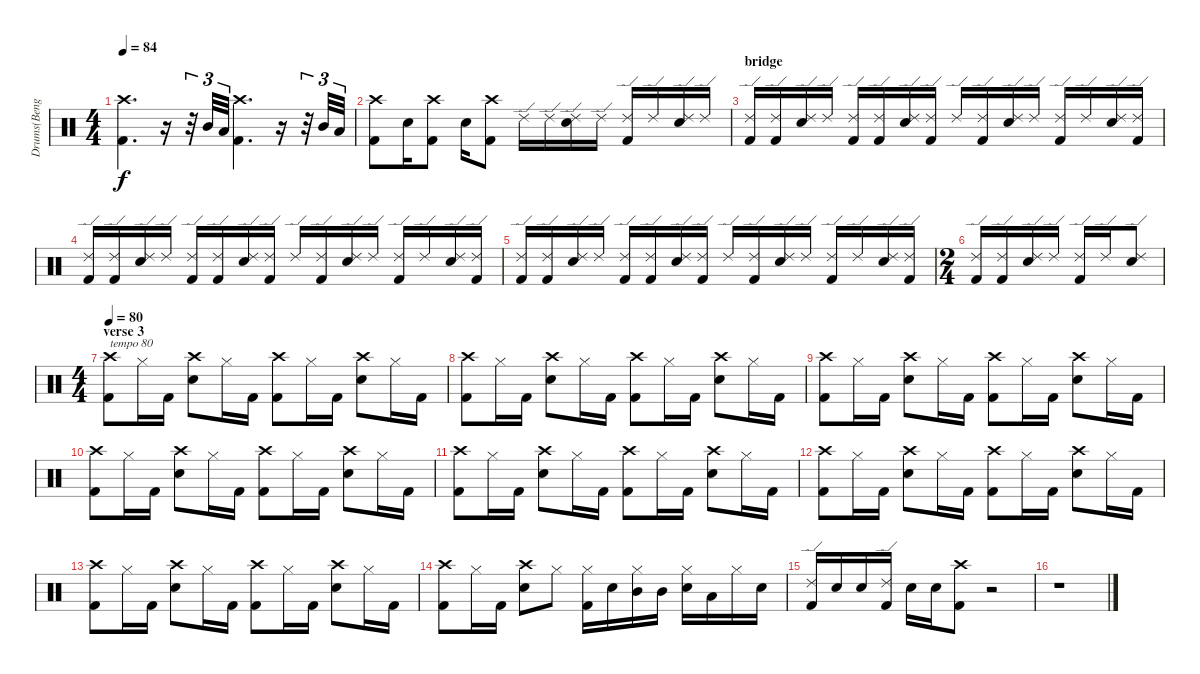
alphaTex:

\track ("Drums(Bengerg)" "Drums(Beng") {instrument percussion}
\staff {score}
\articulation defaults
\ts (4 4)
\tempo 84
\clef neutral
\ks c
("Crash high (hit)" "Kick (hit) 2").4{d dy f} r.16 r.32{tu (3 2)} "Mid Tom (hit)".32{tu (3 2)} "Low Tom (hit)".32{tu (3 2)} ("Crash high (hit)" "Kick (hit) 2").4{d} r.16 r.32{tu (3 2)} "Mid Tom (hit)".32{tu (3 2)} "Low Tom (hit)".32{tu (3 2)} |
("Crash high (hit)" "Kick (hit) 2").8 "Electric Snare (hit)".16 ("Crash high (hit)" "Kick (hit) 2").8 "Electric Snare (hit)".16 ("Crash high (hit)" "Kick (hit) 2").8 "Ride (edge) 2".16 "Ride (edge) 2".16 ("Ride (edge) 2" "Electric Snare (hit)").16 "Ride (edge) 2".16 ("Ride (edge) 2" "Kick (hit) 2").16 "Ride (edge) 2".16 ("Ride (edge) 2" "Electric Snare (hit)").16 "Ride (edge) 2".16 |
\section ("" "bridge")
("Ride (edge) 2" "Kick (hit) 2").16 ("Ride (edge) 2" "Kick (hit) 2").16 ("Ride (edge) 2" "Electric Snare (hit)").16 "Ride (edge) 2".16 ("Ride (edge) 2" "Kick (hit) 2").16 ("Ride (edge) 2" "Kick (hit) 2").16 ("Ride (edge) 2" "Electric Snare (hit)").16 ("Ride (edge) 2" "Kick (hit) 2").16 "Ride (edge) 2".16 ("Ride (edge) 2" "Kick (hit) 2").16 ("Ride (edge) 2" "Electric Snare (hit)").16 "Ride (edge) 2".16 ("Ride (edge) 2" "Kick (hit) 2").16 "Ride (edge) 2".16 ("Ride (edge) 2" "Electric Snare (hit)").16 ("Ride (edge) 2" "Kick (hit) 2").16 |
("Ride (edge) 2" "Kick (hit) 2").16 ("Ride (edge) 2" "Kick (hit) 2").16 ("Ride (edge) 2" "Electric Snare (hit)").16 "Ride (edge) 2".16 ("Ride (edge) 2" "Kick (hit) 2").16 ("Ride (edge) 2" "Kick (hit) 2").16 ("Ride (edge) 2" "Electric Snare (hit)").16 ("Ride (edge) 2" "Kick (hit) 2").16 "Ride (edge) 2".16 ("Ride (edge) 2" "Kick (hit) 2").16 ("Ride (edge) 2" "Electric Snare (hit)").16 "Ride (edge) 2".16 ("Ride (edge) 2" "Kick (hit) 2").16 "Ride (edge) 2".16 ("Ride (edge) 2" "Electric Snare (hit)").16 ("Ride (edge) 2" "Kick (hit) 2").16 |
("Ride (edge) 2" "Kick (hit) 2").16 ("Ride (edge) 2" "Kick (hit) 2").16 ("Ride (edge) 2" "Electric Snare (hit)").16 "Ride (edge) 2".16 ("Ride (edge) 2" "Kick (hit) 2").16 ("Ride (edge) 2" "Kick (hit) 2").16 ("Ride (edge) 2" "Electric Snare (hit)").16 ("Ride (edge) 2" "Kick (hit) 2").16 "Ride (edge) 2".16 ("Ride (edge) 2" "Kick (hit) 2").16 ("Ride (edge) 2" "Electric Snare (hit)").16 "Ride (edge) 2".16 ("Ride (edge) 2" "Kick (hit) 2").16 "Ride (edge) 2".16 ("Ride (edge) 2" "Electric Snare (hit)").16 ("Ride (edge) 2" "Kick (hit) 2").16 |
\ts (2 4)
("Ride (edge) 2" "Kick (hit) 2").16 ("Ride (edge) 2" "Kick (hit) 2").16 ("Ride (edge) 2" "Electric Snare (hit)").16 "Ride (edge) 2".16 ("Ride (edge) 2" "Kick (hit) 2").16 "Ride (edge) 2".16 ("Ride (edge) 2" "Electric Snare (hit)").8 |
\ts (4 4)
\section ("" "verse 3")
\tempo 80
("Crash high (hit)" "Kick (hit) 2").8{txt "tempo 80"} "Hi-Hat (closed)".16 "Kick (hit) 2".16 ("Crash high (hit)" "Electric Snare (hit)").8 "Hi-Hat (closed)".16 "Kick (hit) 2".16 ("Crash high (hit)" "Kick (hit) 2").8 "Hi-Hat (closed)".16 "Kick (hit) 2".16 ("Crash high (hit)" "Electric Snare (hit)").8 "Hi-Hat (closed)".16 "Kick (hit) 2".16 |
("Crash high (hit)" "Kick (hit) 2").8 "Hi-Hat (closed)".16 "Kick (hit) 2".16 ("Crash high (hit)" "Electric Snare (hit)").8 "Hi-Hat (closed)".16 "Kick (hit) 2".16 ("Crash high (hit)" "Kick (hit) 2").8 "Hi-Hat (closed)".16 "Kick (hit) 2".16 ("Crash high (hit)" "Electric Snare (hit)").8 "Hi-Hat (closed)".16 "Kick (hit) 2".16 |
("Crash high (hit)" "Kick (hit) 2").8 "Hi-Hat (closed)".16 "Kick (hit) 2".16 ("Crash high (hit)" "Electric Snare (hit)").8 "Hi-Hat (closed)".16 "Kick (hit) 2".16 ("Crash high (hit)" "Kick (hit) 2").8 "Hi-Hat (closed)".16 "Kick (hit) 2".16 ("Crash high (hit)" "Electric Snare (hit)").8 "Hi-Hat (closed)".16 "Kick (hit) 2".16 |
("Crash high (hit)" "Kick (hit) 2").8 "Hi-Hat (closed)".16 "Kick (hit) 2".16 ("Crash high (hit)" "Electric Snare (hit)").8 "Hi-Hat (closed)".16 "Kick (hit) 2".16 ("Crash high (hit)" "Kick (hit) 2").8 "Hi-Hat (closed)".16 "Kick (hit) 2".16 ("Crash high (hit)" "Electric Snare (hit)").8 "Hi-Hat (closed)".16 "Kick (hit) 2".16 |
("Crash high (hit)" "Kick (hit) 2").8 "Hi-Hat (closed)".16 "Kick (hit) 2".16 ("Crash high (hit)" "Electric Snare (hit)").8 "Hi-Hat (closed)".16 "Kick (hit) 2".16 ("Crash high (hit)" "Kick (hit) 2").8 "Hi-Hat (closed)".16 "Kick (hit) 2".16 ("Crash high (hit)" "Electric Snare (hit)").8 "Hi-Hat (closed)".16 "Kick (hit) 2".16 |
("Crash high (hit)" "Kick (hit) 2").8 "Hi-Hat (closed)".16 "Kick (hit) 2".16 ("Crash high (hit)" "Electric Snare (hit)").8 "Hi-Hat (closed)".16 "Kick (hit) 2".16 ("Crash high (hit)" "Kick (hit) 2").8 "Hi-Hat (closed)".16 "Kick (hit) 2".16 ("Crash high (hit)" "Electric Snare (hit)").8 "Hi-Hat (closed)".16 "Kick (hit) 2".16 |
("Crash high (hit)" "Kick (hit) 2").8 "Hi-Hat (closed)".16 "Kick (hit) 2".16 ("Crash high (hit)" "Electric Snare (hit)").8 "Hi-Hat (closed)".16 "Kick (hit) 2".16 ("Crash high (hit)" "Kick (hit) 2").8 "Hi-Hat (closed)".16 "Kick (hit) 2".16 ("Crash high (hit)" "Electric Snare (hit)").8 "Hi-Hat (closed)".16 "Kick (hit) 2".16 |
("Crash high (hit)" "Kick (hit) 2").8 "Hi-Hat (closed)".16 "Kick (hit) 2".16 ("Crash high (hit)" "Electric Snare (hit)").8 "Hi-Hat (closed)".8 ("Hi-Hat (closed)" "Kick (hit) 2").16 "Electric Snare (hit)".16 ("Hi-Hat (closed)" "Mid Tom (hit)").16 "Mid Tom (hit)".16 ("Hi-Hat (closed)" "Electric Snare (hit)").16 "Low Tom (hit)".16 "Hi-Hat (closed)".16 "Electric Snare (hit)".16 |
("Ride (edge) 2" "Kick (hit) 2").16 "Electric Snare (hit)".16 "Electric Snare (hit)".16 ("Ride (edge) 2" "Kick (hit) 2").16 "Electric Snare (hit)".16 "Electric Snare (hit)".16 ("Crash high (hit)" "Kick (hit) 2").8 r.2 |
r.1
